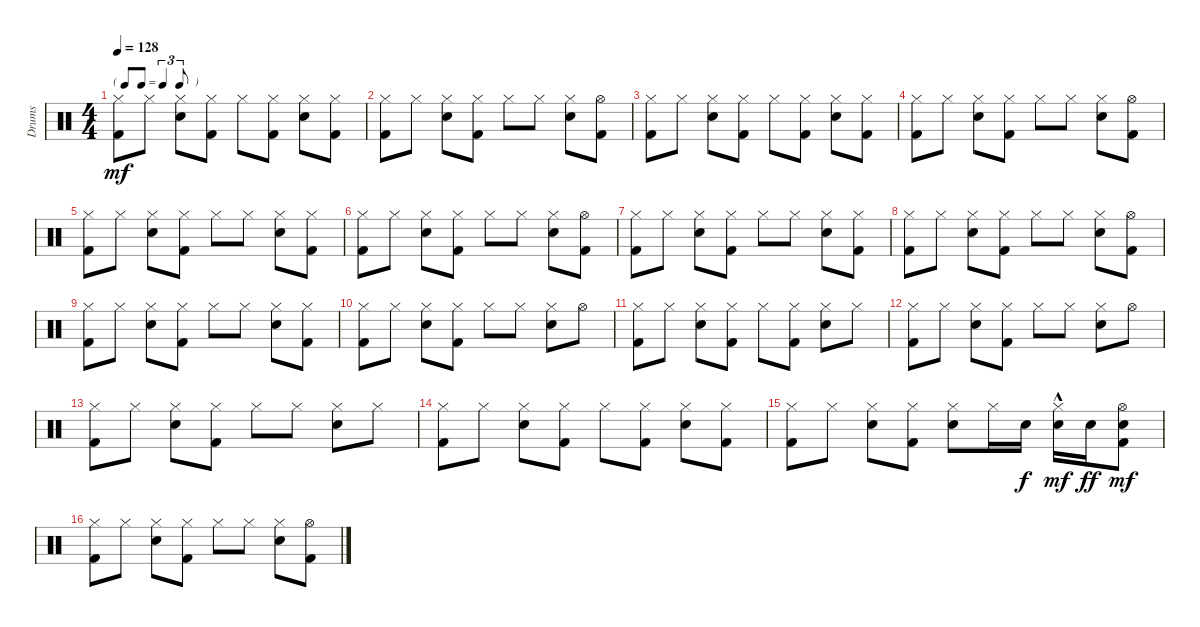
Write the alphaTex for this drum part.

\track ("Drums" "Drums") {instrument percussion}
\staff {score}
\articulation defaults
\ts (4 4)
\tf triplet8th
\tempo 128
\clef neutral
\ks c
("Hi-Hat (closed)" "Kick (hit) 2").8{dy mf} "Hi-Hat (closed)".8 ("Hi-Hat (closed)" "Electric Snare (hit)").8 ("Hi-Hat (closed)" "Kick (hit) 2").8 "Hi-Hat (closed)".8 ("Hi-Hat (closed)" "Kick (hit) 2").8 ("Hi-Hat (closed)" "Electric Snare (hit)").8 ("Hi-Hat (closed)" "Kick (hit) 2").8 |
("Hi-Hat (closed)" "Kick (hit) 2").8 "Hi-Hat (closed)".8 ("Hi-Hat (closed)" "Electric Snare (hit)").8 ("Hi-Hat (closed)" "Kick (hit) 2").8 "Hi-Hat (closed)".8 "Hi-Hat (closed)".8 ("Hi-Hat (closed)" "Electric Snare (hit)").8 ("Hi-Hat (open)" "Kick (hit) 2").8 |
("Hi-Hat (closed)" "Kick (hit) 2").8 "Hi-Hat (closed)".8 ("Hi-Hat (closed)" "Electric Snare (hit)").8 ("Hi-Hat (closed)" "Kick (hit) 2").8 "Hi-Hat (closed)".8 ("Hi-Hat (closed)" "Kick (hit) 2").8 ("Hi-Hat (closed)" "Electric Snare (hit)").8 ("Hi-Hat (closed)" "Kick (hit) 2").8 |
("Hi-Hat (closed)" "Kick (hit) 2").8 "Hi-Hat (closed)".8 ("Hi-Hat (closed)" "Electric Snare (hit)").8 ("Hi-Hat (closed)" "Kick (hit) 2").8 "Hi-Hat (closed)".8 "Hi-Hat (closed)".8 ("Hi-Hat (closed)" "Electric Snare (hit)").8 ("Hi-Hat (open)" "Kick (hit) 2").8 |
("Hi-Hat (closed)" "Kick (hit) 2").8 "Hi-Hat (closed)".8 ("Hi-Hat (closed)" "Electric Snare (hit)").8 ("Hi-Hat (closed)" "Kick (hit) 2").8 "Hi-Hat (closed)".8 "Hi-Hat (closed)".8 ("Hi-Hat (closed)" "Electric Snare (hit)").8 ("Hi-Hat (closed)" "Kick (hit) 2").8 |
("Hi-Hat (closed)" "Kick (hit) 2").8 "Hi-Hat (closed)".8 ("Hi-Hat (closed)" "Electric Snare (hit)").8 ("Hi-Hat (closed)" "Kick (hit) 2").8 "Hi-Hat (closed)".8 "Hi-Hat (closed)".8 ("Hi-Hat (closed)" "Electric Snare (hit)").8 ("Hi-Hat (open)" "Kick (hit) 2").8 |
("Hi-Hat (closed)" "Kick (hit) 2").8 "Hi-Hat (closed)".8 ("Hi-Hat (closed)" "Electric Snare (hit)").8 ("Hi-Hat (closed)" "Kick (hit) 2").8 "Hi-Hat (closed)".8 "Hi-Hat (closed)".8 ("Hi-Hat (closed)" "Electric Snare (hit)").8 ("Hi-Hat (closed)" "Kick (hit) 2").8 |
("Hi-Hat (closed)" "Kick (hit) 2").8 "Hi-Hat (closed)".8 ("Hi-Hat (closed)" "Electric Snare (hit)").8 ("Hi-Hat (closed)" "Kick (hit) 2").8 "Hi-Hat (closed)".8 "Hi-Hat (closed)".8 ("Hi-Hat (closed)" "Electric Snare (hit)").8 ("Hi-Hat (open)" "Kick (hit) 2").8 |
("Hi-Hat (closed)" "Kick (hit) 2").8 "Hi-Hat (closed)".8 ("Hi-Hat (closed)" "Electric Snare (hit)").8 ("Hi-Hat (closed)" "Kick (hit) 2").8 "Hi-Hat (closed)".8 "Hi-Hat (closed)".8 ("Hi-Hat (closed)" "Electric Snare (hit)").8 ("Hi-Hat (closed)" "Kick (hit) 2").8 |
("Hi-Hat (closed)" "Kick (hit) 2").8 "Hi-Hat (closed)".8 ("Hi-Hat (closed)" "Electric Snare (hit)").8 ("Hi-Hat (closed)" "Kick (hit) 2").8 "Hi-Hat (closed)".8 "Hi-Hat (closed)".8 ("Hi-Hat (closed)" "Electric Snare (hit)").8 "Hi-Hat (open)".8 |
("Hi-Hat (closed)" "Kick (hit) 2").8 "Hi-Hat (closed)".8 ("Hi-Hat (closed)" "Electric Snare (hit)").8 ("Hi-Hat (closed)" "Kick (hit) 2").8 "Hi-Hat (closed)".8 ("Hi-Hat (closed)" "Kick (hit) 2").8 ("Hi-Hat (closed)" "Electric Snare (hit)").8 "Hi-Hat (closed)".8 |
("Hi-Hat (closed)" "Kick (hit) 2").8 "Hi-Hat (closed)".8 ("Hi-Hat (closed)" "Electric Snare (hit)").8 ("Hi-Hat (closed)" "Kick (hit) 2").8 "Hi-Hat (closed)".8 "Hi-Hat (closed)".8 ("Hi-Hat (closed)" "Electric Snare (hit)").8 "Hi-Hat (open)".8 |
("Hi-Hat (closed)" "Kick (hit) 2").8 "Hi-Hat (closed)".8 ("Hi-Hat (closed)" "Electric Snare (hit)").8 ("Hi-Hat (closed)" "Kick (hit) 2").8 "Hi-Hat (closed)".8 "Hi-Hat (closed)".8 ("Hi-Hat (closed)" "Electric Snare (hit)").8 "Hi-Hat (closed)".8 |
("Hi-Hat (closed)" "Kick (hit) 2").8 "Hi-Hat (closed)".8 ("Hi-Hat (closed)" "Electric Snare (hit)").8 ("Hi-Hat (closed)" "Kick (hit) 2").8 "Hi-Hat (closed)".8 ("Hi-Hat (closed)" "Kick (hit) 2").8 ("Hi-Hat (closed)" "Electric Snare (hit)").8 ("Hi-Hat (closed)" "Kick (hit) 2").8 |
("Hi-Hat (closed)" "Kick (hit) 2").8 "Hi-Hat (closed)".8 ("Hi-Hat (closed)" "Electric Snare (hit)").8 ("Hi-Hat (closed)" "Kick (hit) 2").8 ("Hi-Hat (closed)" "Electric Snare (hit)").8 "Hi-Hat (closed)".16 "Electric Snare (hit)".16{dy f} ("Hi-Hat (closed)"{hac} "Electric Snare (hit)").16{dy mf} "Electric Snare (hit)".16{dy ff} ("Hi-Hat (open)" "Electric Snare (hit)" "Kick (hit) 2").8{dy mf} |
("Hi-Hat (closed)" "Kick (hit) 2").8 "Hi-Hat (closed)".8 ("Hi-Hat (closed)" "Electric Snare (hit)").8 ("Hi-Hat (closed)" "Kick (hit) 2").8 "Hi-Hat (closed)".8 "Hi-Hat (closed)".8 ("Hi-Hat (closed)" "Electric Snare (hit)").8 ("Hi-Hat (open)" "Kick (hit) 2").8
